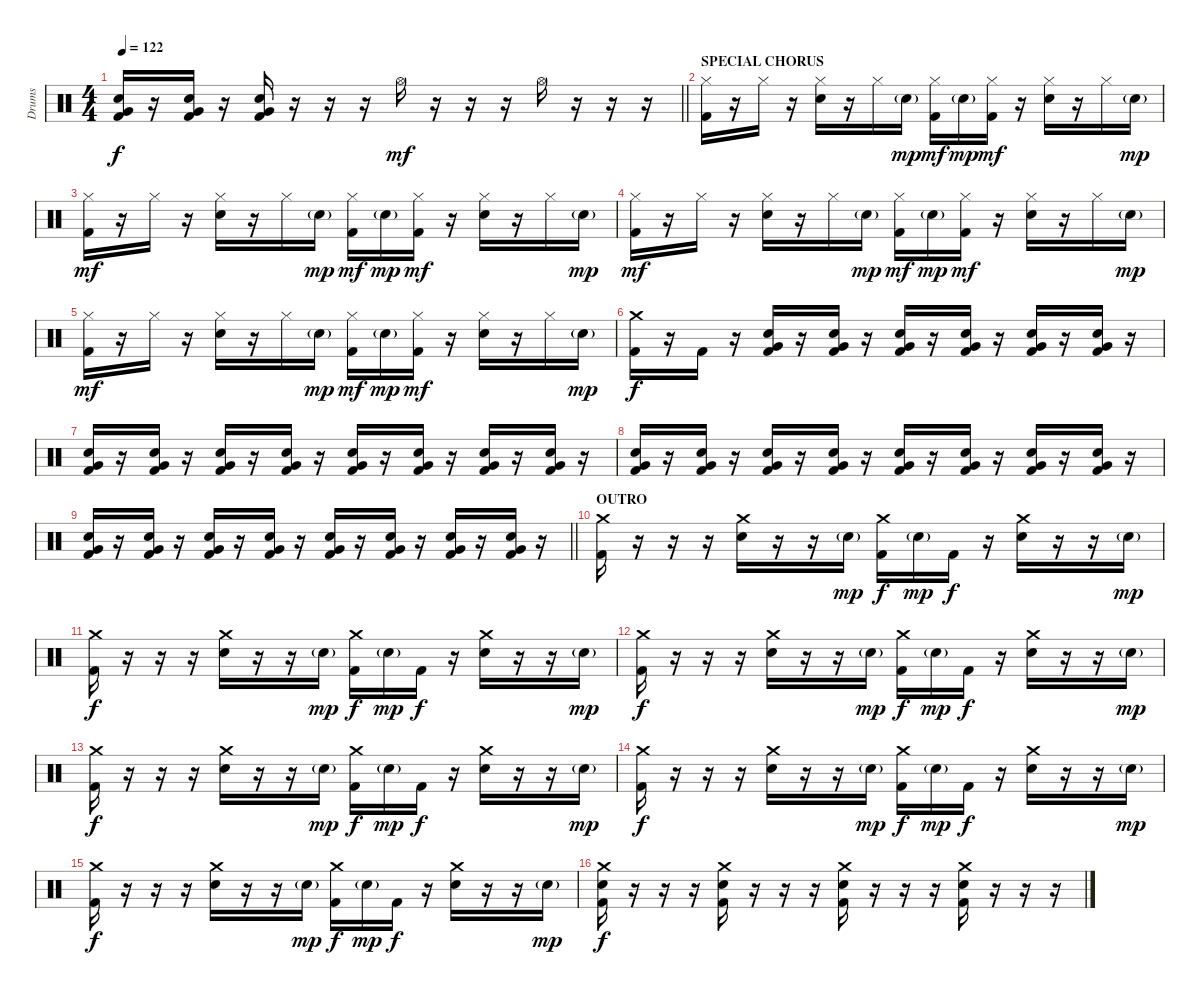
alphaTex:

\track ("Drums" "Drums") {instrument percussion}
\staff {score}
\articulation defaults
\ts (4 4)
\tempo 122
\clef neutral
\barLineRight lightlight
\ks c
("Electric Snare (hit)" "Very Low Tom (hit)" "Kick (hit) 2").16{dy f} r.16 ("Electric Snare (hit)" "Very Low Tom (hit)" "Kick (hit) 2").16 r.16 ("Electric Snare (hit)" "Very Low Tom (hit)" "Kick (hit) 2").16 r.16 r.16 r.16 "Hi-Hat (open)".16{dy mf} r.16 r.16 r.16 "Hi-Hat (open)".16 r.16 r.16 r.16 |
\section ("" "SPECIAL CHORUS")
("Hi-Hat (closed)" "Kick (hit) 2").16 r.16 "Hi-Hat (closed)".16 r.16 ("Hi-Hat (closed)" "Electric Snare (hit)").16 r.16 "Hi-Hat (closed)".16 "Electric Snare (hit)"{g}.16{dy mp} ("Hi-Hat (closed)" "Kick (hit) 2").16{dy mf} "Electric Snare (hit)"{g}.16{dy mp} ("Hi-Hat (closed)" "Kick (hit) 2").16{dy mf} r.16 ("Hi-Hat (closed)" "Electric Snare (hit)").16 r.16 "Hi-Hat (closed)".16 "Electric Snare (hit)"{g}.16{dy mp} |
("Hi-Hat (closed)" "Kick (hit) 2").16{dy mf} r.16 "Hi-Hat (closed)".16 r.16 ("Hi-Hat (closed)" "Electric Snare (hit)").16 r.16 "Hi-Hat (closed)".16 "Electric Snare (hit)"{g}.16{dy mp} ("Hi-Hat (closed)" "Kick (hit) 2").16{dy mf} "Electric Snare (hit)"{g}.16{dy mp} ("Hi-Hat (closed)" "Kick (hit) 2").16{dy mf} r.16 ("Hi-Hat (closed)" "Electric Snare (hit)").16 r.16 "Hi-Hat (closed)".16 "Electric Snare (hit)"{g}.16{dy mp} |
("Hi-Hat (closed)" "Kick (hit) 2").16{dy mf} r.16 "Hi-Hat (closed)".16 r.16 ("Hi-Hat (closed)" "Electric Snare (hit)").16 r.16 "Hi-Hat (closed)".16 "Electric Snare (hit)"{g}.16{dy mp} ("Hi-Hat (closed)" "Kick (hit) 2").16{dy mf} "Electric Snare (hit)"{g}.16{dy mp} ("Hi-Hat (closed)" "Kick (hit) 2").16{dy mf} r.16 ("Hi-Hat (closed)" "Electric Snare (hit)").16 r.16 "Hi-Hat (closed)".16 "Electric Snare (hit)"{g}.16{dy mp} |
("Hi-Hat (closed)" "Kick (hit) 2").16{dy mf} r.16 "Hi-Hat (closed)".16 r.16 ("Hi-Hat (closed)" "Electric Snare (hit)").16 r.16 "Hi-Hat (closed)".16 "Electric Snare (hit)"{g}.16{dy mp} ("Hi-Hat (closed)" "Kick (hit) 2").16{dy mf} "Electric Snare (hit)"{g}.16{dy mp} ("Hi-Hat (closed)" "Kick (hit) 2").16{dy mf} r.16 ("Hi-Hat (closed)" "Electric Snare (hit)").16 r.16 "Hi-Hat (closed)".16 "Electric Snare (hit)"{g}.16{dy mp} |
("Crash medium (hit)" "Kick (hit) 2").16{dy f} r.16 "Kick (hit) 2".16 r.16 ("Electric Snare (hit)" "Very Low Tom (hit)" "Kick (hit) 2").16 r.16 ("Electric Snare (hit)" "Very Low Tom (hit)" "Kick (hit) 2").16 r.16 ("Electric Snare (hit)" "Very Low Tom (hit)" "Kick (hit) 2").16 r.16 ("Electric Snare (hit)" "Very Low Tom (hit)" "Kick (hit) 2").16 r.16 ("Electric Snare (hit)" "Very Low Tom (hit)" "Kick (hit) 2").16 r.16 ("Electric Snare (hit)" "Very Low Tom (hit)" "Kick (hit) 2").16 r.16 |
("Electric Snare (hit)" "Very Low Tom (hit)" "Kick (hit) 2").16 r.16 ("Electric Snare (hit)" "Very Low Tom (hit)" "Kick (hit) 2").16 r.16 ("Electric Snare (hit)" "Very Low Tom (hit)" "Kick (hit) 2").16 r.16 ("Electric Snare (hit)" "Very Low Tom (hit)" "Kick (hit) 2").16 r.16 ("Electric Snare (hit)" "Very Low Tom (hit)" "Kick (hit) 2").16 r.16 ("Electric Snare (hit)" "Very Low Tom (hit)" "Kick (hit) 2").16 r.16 ("Electric Snare (hit)" "Very Low Tom (hit)" "Kick (hit) 2").16 r.16 ("Electric Snare (hit)" "Very Low Tom (hit)" "Kick (hit) 2").16 r.16 |
("Electric Snare (hit)" "Very Low Tom (hit)" "Kick (hit) 2").16 r.16 ("Electric Snare (hit)" "Very Low Tom (hit)" "Kick (hit) 2").16 r.16 ("Electric Snare (hit)" "Very Low Tom (hit)" "Kick (hit) 2").16 r.16 ("Electric Snare (hit)" "Very Low Tom (hit)" "Kick (hit) 2").16 r.16 ("Electric Snare (hit)" "Very Low Tom (hit)" "Kick (hit) 2").16 r.16 ("Electric Snare (hit)" "Very Low Tom (hit)" "Kick (hit) 2").16 r.16 ("Electric Snare (hit)" "Very Low Tom (hit)" "Kick (hit) 2").16 r.16 ("Electric Snare (hit)" "Very Low Tom (hit)" "Kick (hit) 2").16 r.16 |
\barLineRight lightlight
("Electric Snare (hit)" "Very Low Tom (hit)" "Kick (hit) 2").16 r.16 ("Electric Snare (hit)" "Very Low Tom (hit)" "Kick (hit) 2").16 r.16 ("Electric Snare (hit)" "Very Low Tom (hit)" "Kick (hit) 2").16 r.16 ("Electric Snare (hit)" "Very Low Tom (hit)" "Kick (hit) 2").16 r.16 ("Electric Snare (hit)" "Very Low Tom (hit)" "Kick (hit) 2").16 r.16 ("Electric Snare (hit)" "Very Low Tom (hit)" "Kick (hit) 2").16 r.16 ("Electric Snare (hit)" "Very Low Tom (hit)" "Kick (hit) 2").16 r.16 ("Electric Snare (hit)" "Very Low Tom (hit)" "Kick (hit) 2").16 r.16 |
\section ("" "OUTRO")
("Crash medium (hit)" "Kick (hit) 2").16 r.16 r.16 r.16 ("Crash medium (hit)" "Electric Snare (hit)").16 r.16 r.16 "Electric Snare (hit)"{g}.16{dy mp} ("Crash medium (hit)" "Kick (hit) 2").16{dy f} "Electric Snare (hit)"{g}.16{dy mp} "Kick (hit) 2".16{dy f} r.16 ("Crash medium (hit)" "Electric Snare (hit)").16 r.16 r.16 "Electric Snare (hit)"{g}.16{dy mp} |
("Crash medium (hit)" "Kick (hit) 2").16{dy f} r.16 r.16 r.16 ("Crash medium (hit)" "Electric Snare (hit)").16 r.16 r.16 "Electric Snare (hit)"{g}.16{dy mp} ("Crash medium (hit)" "Kick (hit) 2").16{dy f} "Electric Snare (hit)"{g}.16{dy mp} "Kick (hit) 2".16{dy f} r.16 ("Crash medium (hit)" "Electric Snare (hit)").16 r.16 r.16 "Electric Snare (hit)"{g}.16{dy mp} |
("Crash medium (hit)" "Kick (hit) 2").16{dy f} r.16 r.16 r.16 ("Crash medium (hit)" "Electric Snare (hit)").16 r.16 r.16 "Electric Snare (hit)"{g}.16{dy mp} ("Crash medium (hit)" "Kick (hit) 2").16{dy f} "Electric Snare (hit)"{g}.16{dy mp} "Kick (hit) 2".16{dy f} r.16 ("Crash medium (hit)" "Electric Snare (hit)").16 r.16 r.16 "Electric Snare (hit)"{g}.16{dy mp} |
("Crash medium (hit)" "Kick (hit) 2").16{dy f} r.16 r.16 r.16 ("Crash medium (hit)" "Electric Snare (hit)").16 r.16 r.16 "Electric Snare (hit)"{g}.16{dy mp} ("Crash medium (hit)" "Kick (hit) 2").16{dy f} "Electric Snare (hit)"{g}.16{dy mp} "Kick (hit) 2".16{dy f} r.16 ("Crash medium (hit)" "Electric Snare (hit)").16 r.16 r.16 "Electric Snare (hit)"{g}.16{dy mp} |
("Crash medium (hit)" "Kick (hit) 2").16{dy f} r.16 r.16 r.16 ("Crash medium (hit)" "Electric Snare (hit)").16 r.16 r.16 "Electric Snare (hit)"{g}.16{dy mp} ("Crash medium (hit)" "Kick (hit) 2").16{dy f} "Electric Snare (hit)"{g}.16{dy mp} "Kick (hit) 2".16{dy f} r.16 ("Crash medium (hit)" "Electric Snare (hit)").16 r.16 r.16 "Electric Snare (hit)"{g}.16{dy mp} |
("Crash medium (hit)" "Kick (hit) 2").16{dy f} r.16 r.16 r.16 ("Crash medium (hit)" "Electric Snare (hit)").16 r.16 r.16 "Electric Snare (hit)"{g}.16{dy mp} ("Crash medium (hit)" "Kick (hit) 2").16{dy f} "Electric Snare (hit)"{g}.16{dy mp} "Kick (hit) 2".16{dy f} r.16 ("Crash medium (hit)" "Electric Snare (hit)").16 r.16 r.16 "Electric Snare (hit)"{g}.16{dy mp} |
("Crash medium (hit)" "Electric Snare (hit)" "Kick (hit) 2").16{dy f} r.16 r.16 r.16 ("Crash medium (hit)" "Electric Snare (hit)" "Kick (hit) 2").16 r.16 r.16 r.16 ("Crash medium (hit)" "Electric Snare (hit)" "Kick (hit) 2").16 r.16 r.16 r.16 ("Crash medium (hit)" "Electric Snare (hit)" "Kick (hit) 2").16 r.16 r.16 r.16
